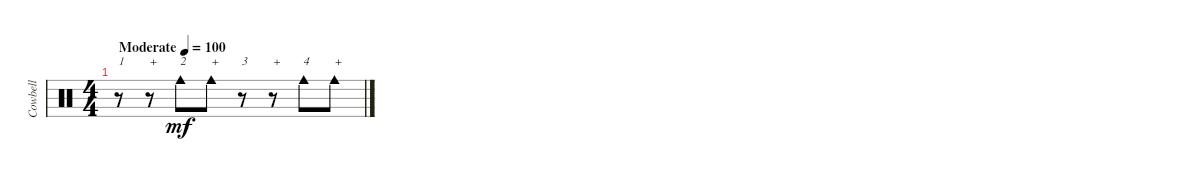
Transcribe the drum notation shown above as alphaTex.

\track ("Cowbell" "Cowbell") {instrument percussion}
\staff {score}
\articulation defaults
\ts (4 4)
\tempo (100 "Moderate")
\clef neutral
\ks c
r.8{txt "1" dy mf} r.8{txt "+"} "Cowbell medium (hit)".8{txt "2"} "Cowbell medium (hit)".8{txt "+"} r.8{txt "3"} r.8{txt "+"} "Cowbell medium (hit)".8{txt "4"} "Cowbell medium (hit)".8{txt "+"}
